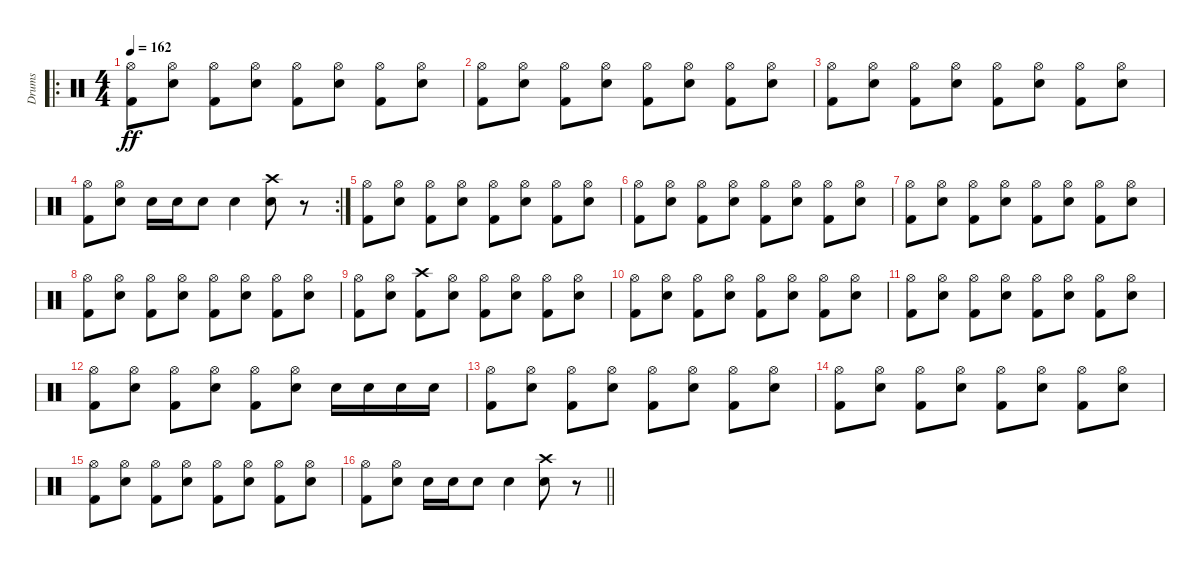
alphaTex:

\track ("Drums" "Drums") {instrument percussion}
\staff {score}
\articulation defaults
\ro
\ts (4 4)
\tempo 162
\clef neutral
\ks c
("Hi-Hat (open)" "Kick (hit) 2").8{dy ff} ("Hi-Hat (open)" "Electric Snare (hit)").8 ("Hi-Hat (open)" "Kick (hit) 2").8 ("Hi-Hat (open)" "Electric Snare (hit)").8 ("Hi-Hat (open)" "Kick (hit) 2").8 ("Hi-Hat (open)" "Electric Snare (hit)").8 ("Hi-Hat (open)" "Kick (hit) 2").8 ("Hi-Hat (open)" "Electric Snare (hit)").8 |
("Hi-Hat (open)" "Kick (hit) 2").8 ("Hi-Hat (open)" "Electric Snare (hit)").8 ("Hi-Hat (open)" "Kick (hit) 2").8 ("Hi-Hat (open)" "Electric Snare (hit)").8 ("Hi-Hat (open)" "Kick (hit) 2").8 ("Hi-Hat (open)" "Electric Snare (hit)").8 ("Hi-Hat (open)" "Kick (hit) 2").8 ("Hi-Hat (open)" "Electric Snare (hit)").8 |
("Hi-Hat (open)" "Kick (hit) 2").8 ("Hi-Hat (open)" "Electric Snare (hit)").8 ("Hi-Hat (open)" "Kick (hit) 2").8 ("Hi-Hat (open)" "Electric Snare (hit)").8 ("Hi-Hat (open)" "Kick (hit) 2").8 ("Hi-Hat (open)" "Electric Snare (hit)").8 ("Hi-Hat (open)" "Kick (hit) 2").8 ("Hi-Hat (open)" "Electric Snare (hit)").8 |
\rc 2
("Hi-Hat (open)" "Kick (hit) 2").8 ("Hi-Hat (open)" "Electric Snare (hit)").8 "Electric Snare (hit)".16 "Electric Snare (hit)".16 "Electric Snare (hit)".8 "Electric Snare (hit)".4 ("Crash high (hit)" "Electric Snare (hit)").8 r.8 |
("Hi-Hat (open)" "Kick (hit) 2").8 ("Hi-Hat (open)" "Electric Snare (hit)").8 ("Hi-Hat (open)" "Kick (hit) 2").8 ("Hi-Hat (open)" "Electric Snare (hit)").8 ("Hi-Hat (open)" "Kick (hit) 2").8 ("Hi-Hat (open)" "Electric Snare (hit)").8 ("Hi-Hat (open)" "Kick (hit) 2").8 ("Hi-Hat (open)" "Electric Snare (hit)").8 |
("Hi-Hat (open)" "Kick (hit) 2").8 ("Hi-Hat (open)" "Electric Snare (hit)").8 ("Hi-Hat (open)" "Kick (hit) 2").8 ("Hi-Hat (open)" "Electric Snare (hit)").8 ("Hi-Hat (open)" "Kick (hit) 2").8 ("Hi-Hat (open)" "Electric Snare (hit)").8 ("Hi-Hat (open)" "Kick (hit) 2").8 ("Hi-Hat (open)" "Electric Snare (hit)").8 |
("Hi-Hat (open)" "Kick (hit) 2").8 ("Hi-Hat (open)" "Electric Snare (hit)").8 ("Hi-Hat (open)" "Kick (hit) 2").8 ("Hi-Hat (open)" "Electric Snare (hit)").8 ("Hi-Hat (open)" "Kick (hit) 2").8 ("Hi-Hat (open)" "Electric Snare (hit)").8 ("Hi-Hat (open)" "Kick (hit) 2").8 ("Hi-Hat (open)" "Electric Snare (hit)").8 |
("Hi-Hat (open)" "Kick (hit) 2").8 ("Hi-Hat (open)" "Electric Snare (hit)").8 ("Hi-Hat (open)" "Kick (hit) 2").8 ("Hi-Hat (open)" "Electric Snare (hit)").8 ("Hi-Hat (open)" "Kick (hit) 2").8 ("Hi-Hat (open)" "Electric Snare (hit)").8 ("Hi-Hat (open)" "Kick (hit) 2").8 ("Hi-Hat (open)" "Electric Snare (hit)").8 |
("Hi-Hat (open)" "Kick (hit) 2").8 ("Hi-Hat (open)" "Electric Snare (hit)").8 ("Crash high (hit)" "Kick (hit) 2").8 ("Hi-Hat (open)" "Electric Snare (hit)").8 ("Hi-Hat (open)" "Kick (hit) 2").8 ("Hi-Hat (open)" "Electric Snare (hit)").8 ("Hi-Hat (open)" "Kick (hit) 2").8 ("Hi-Hat (open)" "Electric Snare (hit)").8 |
("Hi-Hat (open)" "Kick (hit) 2").8 ("Hi-Hat (open)" "Electric Snare (hit)").8 ("Hi-Hat (open)" "Kick (hit) 2").8 ("Hi-Hat (open)" "Electric Snare (hit)").8 ("Hi-Hat (open)" "Kick (hit) 2").8 ("Hi-Hat (open)" "Electric Snare (hit)").8 ("Hi-Hat (open)" "Kick (hit) 2").8 ("Hi-Hat (open)" "Electric Snare (hit)").8 |
("Hi-Hat (open)" "Kick (hit) 2").8 ("Hi-Hat (open)" "Electric Snare (hit)").8 ("Hi-Hat (open)" "Kick (hit) 2").8 ("Hi-Hat (open)" "Electric Snare (hit)").8 ("Hi-Hat (open)" "Kick (hit) 2").8 ("Hi-Hat (open)" "Electric Snare (hit)").8 ("Hi-Hat (open)" "Kick (hit) 2").8 ("Hi-Hat (open)" "Electric Snare (hit)").8 |
("Hi-Hat (open)" "Kick (hit) 2").8 ("Hi-Hat (open)" "Electric Snare (hit)").8 ("Hi-Hat (open)" "Kick (hit) 2").8 ("Hi-Hat (open)" "Electric Snare (hit)").8 ("Hi-Hat (open)" "Kick (hit) 2").8 ("Hi-Hat (open)" "Electric Snare (hit)").8 "Electric Snare (hit)".16 "Electric Snare (hit)".16 "Electric Snare (hit)".16 "Electric Snare (hit)".16 |
("Hi-Hat (open)" "Kick (hit) 2").8 ("Hi-Hat (open)" "Electric Snare (hit)").8 ("Hi-Hat (open)" "Kick (hit) 2").8 ("Hi-Hat (open)" "Electric Snare (hit)").8 ("Hi-Hat (open)" "Kick (hit) 2").8 ("Hi-Hat (open)" "Electric Snare (hit)").8 ("Hi-Hat (open)" "Kick (hit) 2").8 ("Hi-Hat (open)" "Electric Snare (hit)").8 |
("Hi-Hat (open)" "Kick (hit) 2").8 ("Hi-Hat (open)" "Electric Snare (hit)").8 ("Hi-Hat (open)" "Kick (hit) 2").8 ("Hi-Hat (open)" "Electric Snare (hit)").8 ("Hi-Hat (open)" "Kick (hit) 2").8 ("Hi-Hat (open)" "Electric Snare (hit)").8 ("Hi-Hat (open)" "Kick (hit) 2").8 ("Hi-Hat (open)" "Electric Snare (hit)").8 |
("Hi-Hat (open)" "Kick (hit) 2").8 ("Hi-Hat (open)" "Electric Snare (hit)").8 ("Hi-Hat (open)" "Kick (hit) 2").8 ("Hi-Hat (open)" "Electric Snare (hit)").8 ("Hi-Hat (open)" "Kick (hit) 2").8 ("Hi-Hat (open)" "Electric Snare (hit)").8 ("Hi-Hat (open)" "Kick (hit) 2").8 ("Hi-Hat (open)" "Electric Snare (hit)").8 |
\barLineRight lightlight
("Hi-Hat (open)" "Kick (hit) 2").8 ("Hi-Hat (open)" "Electric Snare (hit)").8 "Electric Snare (hit)".16 "Electric Snare (hit)".16 "Electric Snare (hit)".8 "Electric Snare (hit)".4 ("Crash high (hit)" "Electric Snare (hit)").8 r.8
